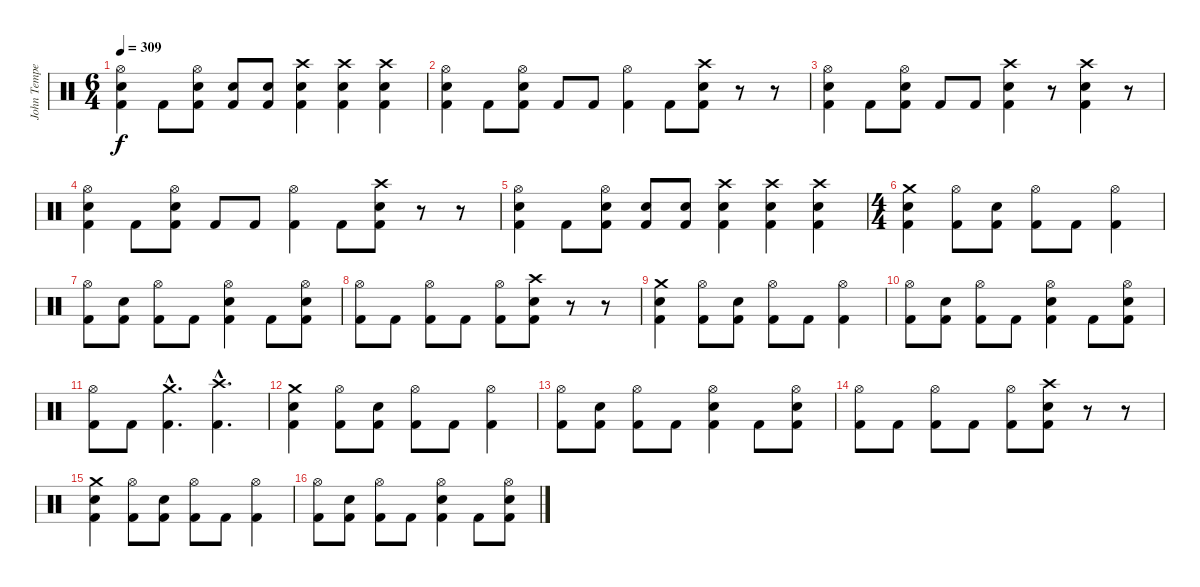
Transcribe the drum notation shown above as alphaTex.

\track ("John Tempesta" "John Tempe") {instrument percussion}
\staff {score}
\articulation defaults
\ts (6 4)
\tempo 309
\clef neutral
\ks c
("Kick (hit) 2" "Snare (hit) 2" "Hi-Hat (open)").4{dy f} "Kick (hit) 2".8 ("Kick (hit) 2" "Snare (hit) 2" "Hi-Hat (open)").8 ("Kick (hit) 2" "Snare (hit) 2").8 ("Kick (hit) 2" "Snare (hit) 2").8 ("Kick (hit) 2" "Snare (hit) 2" "Crash high (hit)").4 ("Kick (hit) 2" "Snare (hit) 2" "Crash high (hit)").4 ("Kick (hit) 2" "Snare (hit) 2" "Crash high (hit)").4 |
("Kick (hit) 2" "Snare (hit) 2" "Hi-Hat (open)").4 "Kick (hit) 2".8 ("Kick (hit) 2" "Snare (hit) 2" "Hi-Hat (open)").8 "Kick (hit) 2".8 "Kick (hit) 2".8 ("Kick (hit) 2" "Hi-Hat (open)").4 "Kick (hit) 2".8 ("Kick (hit) 2" "Snare (hit) 2" "Crash high (hit)").8 r.8 r.8 |
("Kick (hit) 2" "Snare (hit) 2" "Hi-Hat (open)").4 "Kick (hit) 2".8 ("Kick (hit) 2" "Snare (hit) 2" "Hi-Hat (open)").8 "Kick (hit) 2".8 "Kick (hit) 2".8 ("Kick (hit) 2" "Snare (hit) 2" "Crash high (hit)").4 r.8 ("Kick (hit) 2" "Snare (hit) 2" "Crash high (hit)").4 r.8 |
("Kick (hit) 2" "Snare (hit) 2" "Hi-Hat (open)").4 "Kick (hit) 2".8 ("Kick (hit) 2" "Snare (hit) 2" "Hi-Hat (open)").8 "Kick (hit) 2".8 "Kick (hit) 2".8 ("Kick (hit) 2" "Hi-Hat (open)").4 "Kick (hit) 2".8 ("Kick (hit) 2" "Snare (hit) 2" "Crash high (hit)").8 r.8 r.8 |
("Kick (hit) 2" "Snare (hit) 2" "Hi-Hat (open)").4 "Kick (hit) 2".8 ("Kick (hit) 2" "Snare (hit) 2" "Hi-Hat (open)").8 ("Kick (hit) 2" "Snare (hit) 2").8 ("Kick (hit) 2" "Snare (hit) 2").8 ("Kick (hit) 2" "Snare (hit) 2" "Crash high (hit)").4 ("Kick (hit) 2" "Snare (hit) 2" "Crash high (hit)").4 ("Kick (hit) 2" "Snare (hit) 2" "Crash high (hit)").4 |
\ts (4 4)
("Kick (hit) 2" "Snare (hit) 2" "Crash medium (hit)").4 ("Kick (hit) 2" "Hi-Hat (open)").8 ("Kick (hit) 2" "Snare (hit) 2").8 ("Kick (hit) 2" "Hi-Hat (open)").8 "Kick (hit) 2".8 ("Kick (hit) 2" "Hi-Hat (open)").4 |
("Kick (hit) 2" "Hi-Hat (open)").8 ("Kick (hit) 2" "Snare (hit) 2").8 ("Kick (hit) 2" "Hi-Hat (open)").8 "Kick (hit) 2".8 ("Kick (hit) 2" "Snare (hit) 2" "Hi-Hat (open)").4 "Kick (hit) 2".8 ("Kick (hit) 2" "Snare (hit) 2" "Hi-Hat (open)").8 |
("Kick (hit) 2" "Hi-Hat (open)").8 "Kick (hit) 2".8 ("Kick (hit) 2" "Hi-Hat (open)").8 "Kick (hit) 2".8 ("Kick (hit) 2" "Hi-Hat (open)").8 ("Kick (hit) 2" "Snare (hit) 2" "Crash high (hit)").8 r.8 r.8 |
("Kick (hit) 2" "Snare (hit) 2" "Crash medium (hit)").4 ("Kick (hit) 2" "Hi-Hat (open)").8 ("Kick (hit) 2" "Snare (hit) 2").8 ("Kick (hit) 2" "Hi-Hat (open)").8 "Kick (hit) 2".8 ("Kick (hit) 2" "Hi-Hat (open)").4 |
("Kick (hit) 2" "Hi-Hat (open)").8 ("Kick (hit) 2" "Snare (hit) 2").8 ("Kick (hit) 2" "Hi-Hat (open)").8 "Kick (hit) 2".8 ("Kick (hit) 2" "Snare (hit) 2" "Hi-Hat (open)").4 "Kick (hit) 2".8 ("Kick (hit) 2" "Snare (hit) 2" "Hi-Hat (open)").8 |
("Kick (hit) 2" "Hi-Hat (open)").8 "Kick (hit) 2".8 ("Kick (hit) 2"{hac} "Crash medium (hit)"{hac}).4{d} ("Kick (hit) 2"{hac} "Crash high (hit)"{hac}).4{d} |
("Kick (hit) 2" "Snare (hit) 2" "Crash medium (hit)").4 ("Kick (hit) 2" "Hi-Hat (open)").8 ("Kick (hit) 2" "Snare (hit) 2").8 ("Kick (hit) 2" "Hi-Hat (open)").8 "Kick (hit) 2".8 ("Kick (hit) 2" "Hi-Hat (open)").4 |
("Kick (hit) 2" "Hi-Hat (open)").8 ("Kick (hit) 2" "Snare (hit) 2").8 ("Kick (hit) 2" "Hi-Hat (open)").8 "Kick (hit) 2".8 ("Kick (hit) 2" "Snare (hit) 2" "Hi-Hat (open)").4 "Kick (hit) 2".8 ("Kick (hit) 2" "Snare (hit) 2" "Hi-Hat (open)").8 |
("Kick (hit) 2" "Hi-Hat (open)").8 "Kick (hit) 2".8 ("Kick (hit) 2" "Hi-Hat (open)").8 "Kick (hit) 2".8 ("Kick (hit) 2" "Hi-Hat (open)").8 ("Kick (hit) 2" "Snare (hit) 2" "Crash high (hit)").8 r.8 r.8 |
("Kick (hit) 2" "Snare (hit) 2" "Crash medium (hit)").4 ("Kick (hit) 2" "Hi-Hat (open)").8 ("Kick (hit) 2" "Snare (hit) 2").8 ("Kick (hit) 2" "Hi-Hat (open)").8 "Kick (hit) 2".8 ("Kick (hit) 2" "Hi-Hat (open)").4 |
("Kick (hit) 2" "Hi-Hat (open)").8 ("Kick (hit) 2" "Snare (hit) 2").8 ("Kick (hit) 2" "Hi-Hat (open)").8 "Kick (hit) 2".8 ("Kick (hit) 2" "Snare (hit) 2" "Hi-Hat (open)").4 "Kick (hit) 2".8 ("Kick (hit) 2" "Snare (hit) 2" "Hi-Hat (open)").8
